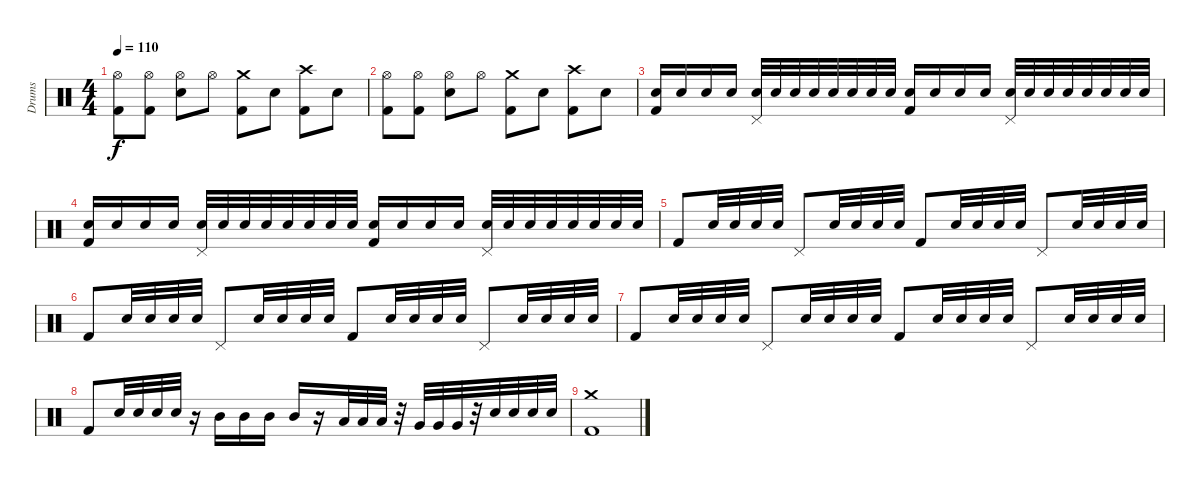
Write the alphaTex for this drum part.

\track ("Drums" "Drums") {instrument percussion}
\staff {score}
\articulation defaults
\ts (4 4)
\tempo 110
\clef neutral
\ks c
("Hi-Hat (open)" "Kick (hit) 2").8{dy f} ("Hi-Hat (open)" "Kick (hit) 2").8 ("Hi-Hat (open)" "Snare (hit) 2").8 "Hi-Hat (open)".8 ("Crash medium (hit)" "Kick (hit) 2").8 "Snare (hit) 2".8 ("Crash high (hit)" "Kick (hit) 2").8 "Snare (hit) 2".8 |
("Hi-Hat (open)" "Kick (hit) 2").8 ("Hi-Hat (open)" "Kick (hit) 2").8 ("Hi-Hat (open)" "Snare (hit) 2").8 "Hi-Hat (open)".8 ("Crash medium (hit)" "Kick (hit) 2").8 "Snare (hit) 2".8 ("Crash high (hit)" "Kick (hit) 2").8 "Snare (hit) 2".8 |
("Snare (hit) 2" "Kick (hit) 2").16 "Snare (hit) 2".16 "Snare (hit) 2".16 "Snare (hit) 2".16 ("Snare (hit) 2" "Pedal Hi-Hat (hit)").32 "Snare (hit) 2".32 "Snare (hit) 2".32 "Snare (hit) 2".32 "Snare (hit) 2".32 "Snare (hit) 2".32 "Snare (hit) 2".32 "Snare (hit) 2".32 ("Snare (hit) 2" "Kick (hit) 2").16 "Snare (hit) 2".16 "Snare (hit) 2".16 "Snare (hit) 2".16 ("Snare (hit) 2" "Pedal Hi-Hat (hit)").32 "Snare (hit) 2".32 "Snare (hit) 2".32 "Snare (hit) 2".32 "Snare (hit) 2".32 "Snare (hit) 2".32 "Snare (hit) 2".32 "Snare (hit) 2".32 |
("Snare (hit) 2" "Kick (hit) 2").16 "Snare (hit) 2".16 "Snare (hit) 2".16 "Snare (hit) 2".16 ("Snare (hit) 2" "Pedal Hi-Hat (hit)").32 "Snare (hit) 2".32 "Snare (hit) 2".32 "Snare (hit) 2".32 "Snare (hit) 2".32 "Snare (hit) 2".32 "Snare (hit) 2".32 "Snare (hit) 2".32 ("Snare (hit) 2" "Kick (hit) 2").16 "Snare (hit) 2".16 "Snare (hit) 2".16 "Snare (hit) 2".16 ("Snare (hit) 2" "Pedal Hi-Hat (hit)").32 "Snare (hit) 2".32 "Snare (hit) 2".32 "Snare (hit) 2".32 "Snare (hit) 2".32 "Snare (hit) 2".32 "Snare (hit) 2".32 "Snare (hit) 2".32 |
"Kick (hit) 2".8 "Snare (hit) 2".32 "Snare (hit) 2".32 "Snare (hit) 2".32 "Snare (hit) 2".32 "Pedal Hi-Hat (hit)".8 "Snare (hit) 2".32 "Snare (hit) 2".32 "Snare (hit) 2".32 "Snare (hit) 2".32 "Kick (hit) 2".8 "Snare (hit) 2".32 "Snare (hit) 2".32 "Snare (hit) 2".32 "Snare (hit) 2".32 "Pedal Hi-Hat (hit)".8 "Snare (hit) 2".32 "Snare (hit) 2".32 "Snare (hit) 2".32 "Snare (hit) 2".32 |
"Kick (hit) 2".8 "Snare (hit) 2".32 "Snare (hit) 2".32 "Snare (hit) 2".32 "Snare (hit) 2".32 "Pedal Hi-Hat (hit)".8 "Snare (hit) 2".32 "Snare (hit) 2".32 "Snare (hit) 2".32 "Snare (hit) 2".32 "Kick (hit) 2".8 "Snare (hit) 2".32 "Snare (hit) 2".32 "Snare (hit) 2".32 "Snare (hit) 2".32 "Pedal Hi-Hat (hit)".8 "Snare (hit) 2".32 "Snare (hit) 2".32 "Snare (hit) 2".32 "Snare (hit) 2".32 |
"Kick (hit) 2".8 "Snare (hit) 2".32 "Snare (hit) 2".32 "Snare (hit) 2".32 "Snare (hit) 2".32 "Pedal Hi-Hat (hit)".8 "Snare (hit) 2".32 "Snare (hit) 2".32 "Snare (hit) 2".32 "Snare (hit) 2".32 "Kick (hit) 2".8 "Snare (hit) 2".32 "Snare (hit) 2".32 "Snare (hit) 2".32 "Snare (hit) 2".32 "Pedal Hi-Hat (hit)".8 "Snare (hit) 2".32 "Snare (hit) 2".32 "Snare (hit) 2".32 "Snare (hit) 2".32 |
"Kick (hit) 2".8 "Snare (hit) 2".32 "Snare (hit) 2".32 "Snare (hit) 2".32 "Snare (hit) 2".32 r.16 "Mid Tom (hit)".16 "Mid Tom (hit)".16 "Mid Tom (hit)".16 "Mid Tom (hit)".16 r.16 "Low Tom (hit)".32 "Low Tom (hit)".32 "Low Tom (hit)".32 r.32 "Very Low Tom (hit)".32 "Very Low Tom (hit)".32 "Very Low Tom (hit)".32 r.32 "Snare (hit) 2".32 "Snare (hit) 2".32 "Snare (hit) 2".32 "Snare (hit) 2".32 |
("Crash medium (hit)" "Kick (hit) 2").1
